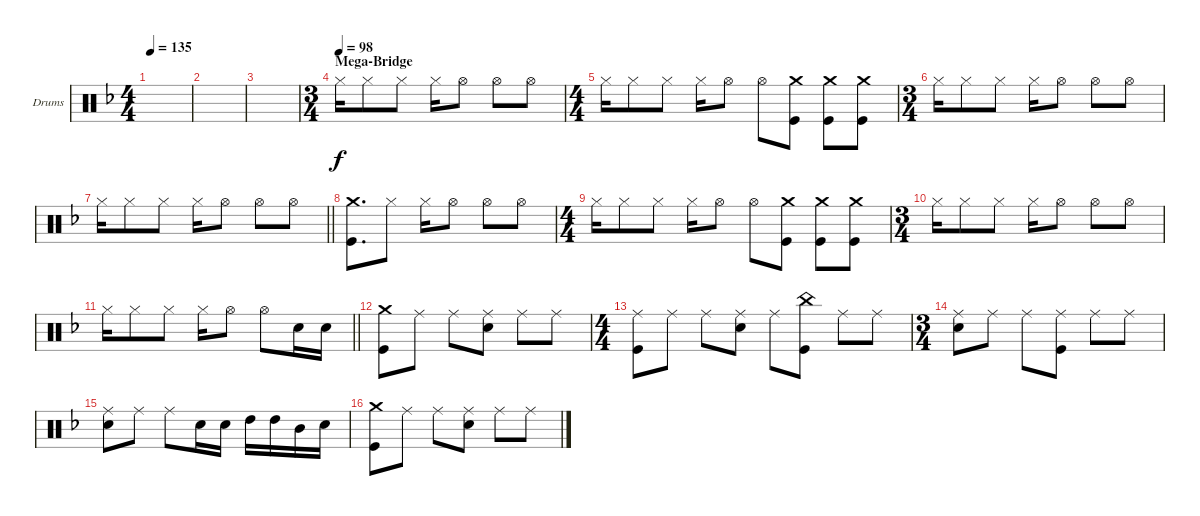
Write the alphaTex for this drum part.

\bracketExtendMode groupsimilarinstruments
\firstSystemTrackNameOrientation horizontal
\otherSystemsTrackNameOrientation horizontal
\track ("drums (Anton Zulganov)" "Drums") {instrument percussion}
\staff {score}
\articulation defaults
\ts (4 4)
\tempo 135
\clef neutral
\ks dminor
|
|
|
\ts (3 4)
\beaming (8 2 2 2 2)
\section ("" "Mega-Bridge")
\tempo (98)
"Hi-Hat (closed)".16 "Hi-Hat (closed)".8 "Hi-Hat (closed)".8 "Hi-Hat (closed)".16 "Hi-Hat (open)".8 "Hi-Hat (open)".8 "Hi-Hat (open)".8 |
\ts (4 4)
\beaming (8 2 2 2 2)
"Hi-Hat (closed)".16 "Hi-Hat (closed)".8 "Hi-Hat (closed)".8 "Hi-Hat (closed)".16 "Hi-Hat (open)".8 "Hi-Hat (open)".8 ("Kick (hit)" "Crash medium (hit)").8 ("Kick (hit)" "Crash medium (hit)").8 ("Kick (hit)" "Crash medium (hit)").8 |
\ts (3 4)
\beaming (8 2 2 2 2)
"Hi-Hat (closed)".16 "Hi-Hat (closed)".8 "Hi-Hat (closed)".8 "Hi-Hat (closed)".16 "Hi-Hat (open)".8 "Hi-Hat (open)".8 "Hi-Hat (open)".8 |
\barLineRight lightlight "Hi-Hat (closed)".16 "Hi-Hat (closed)".8 "Hi-Hat (closed)".8 "Hi-Hat (closed)".16 "Hi-Hat (open)".8 "Hi-Hat (open)".8 "Hi-Hat (open)".8
|
("Kick (hit)" "Crash medium (hit)").8{d} "Hi-Hat (closed)".8 "Hi-Hat (closed)".16 "Hi-Hat (open)".8 "Hi-Hat (open)".8 "Hi-Hat (open)".8 |
\ts (4 4)
\beaming (8 2 2 2 2)
"Hi-Hat (closed)".16 "Hi-Hat (closed)".8 "Hi-Hat (closed)".8 "Hi-Hat (closed)".16 "Hi-Hat (open)".8 "Hi-Hat (open)".8 ("Crash medium (hit)" "Kick (hit)").8 ("Crash medium (hit)" "Kick (hit)").8 ("Crash medium (hit)" "Kick (hit)").8 |
\ts (3 4)
\beaming (8 2 2 2 2)
"Hi-Hat (closed)".16 "Hi-Hat (closed)".8 "Hi-Hat (closed)".8 "Hi-Hat (closed)".16 "Hi-Hat (open)".8 "Hi-Hat (open)".8 "Hi-Hat (open)".8 |
\barLineRight lightlight "Hi-Hat (closed)".16 "Hi-Hat (closed)".8 "Hi-Hat (closed)".8 "Hi-Hat (closed)".16 "Hi-Hat (open)".8 "Hi-Hat (open)".8 "Snare (hit) 2".16 "Snare (hit) 2".16
|
("Kick (hit)" "Crash medium (hit)").8 "Ride (middle)".8 "Ride (middle)".8 ("Ride (middle)" "Snare (hit) 2").8 "Ride (middle)".8 "Ride (middle)".8 |
\ts (4 4)
\beaming (8 2 2 2 2)
("Ride (middle)" "Kick (hit)").8 "Ride (middle)".8 "Ride (middle)".8 ("Ride (middle)" "Snare (hit) 2").8 "Ride (middle)".8 ("Kick (hit)" "China (hit)").8 "Ride (middle)".8 "Ride (middle)".8 |
\ts (3 4)
\beaming (8 2 2 2 2)
("Ride (middle)" "Snare (hit) 2").8 "Ride (middle)".8 "Ride (middle)".8 ("Ride (middle)" "Kick (hit)").8 "Ride (middle)".8 "Ride (middle)".8 |
("Ride (middle)" "Snare (hit) 2").8 "Ride (middle)".8 "Ride (middle)".8 "Snare (hit) 2".16 "Snare (hit) 2".16 "High Tom (hit)".16 "High Tom (hit)".16 "Mid Tom (hit)".16 "Snare (hit) 2".16 |
("Kick (hit)" "Crash medium (hit)").8 "Ride (middle)".8 "Ride (middle)".8 ("Ride (middle)" "Snare (hit) 2").8 "Ride (middle)".8 "Ride (middle)".8
